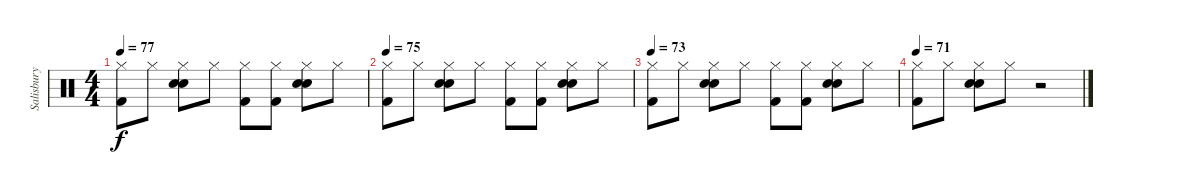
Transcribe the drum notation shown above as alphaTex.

\track ("Salisbury" "Salisbury") {instrument percussion}
\staff {score}
\articulation defaults
\ts (4 4)
\tempo 77
\clef neutral
\ks c
("Hi-Hat (closed)" "Kick (hit) 2").8{dy f} "Hi-Hat (closed)".8 ("Hi-Hat (closed)" "Electric Snare (hit)" "Hand Clap (hit)").8 "Hi-Hat (closed)".8 ("Hi-Hat (closed)" "Kick (hit) 2").8 ("Hi-Hat (closed)" "Kick (hit) 2").8 ("Hi-Hat (closed)" "Electric Snare (hit)" "Hand Clap (hit)").8 "Hi-Hat (closed)".8 |
\tempo 75
("Hi-Hat (closed)" "Kick (hit) 2").8 "Hi-Hat (closed)".8 ("Hi-Hat (closed)" "Electric Snare (hit)" "Hand Clap (hit)").8 "Hi-Hat (closed)".8 ("Hi-Hat (closed)" "Kick (hit) 2").8 ("Hi-Hat (closed)" "Kick (hit) 2").8 ("Hi-Hat (closed)" "Electric Snare (hit)" "Hand Clap (hit)").8 "Hi-Hat (closed)".8 |
\tempo 73
("Hi-Hat (closed)" "Kick (hit) 2").8 "Hi-Hat (closed)".8 ("Hi-Hat (closed)" "Electric Snare (hit)" "Hand Clap (hit)").8 "Hi-Hat (closed)".8 ("Hi-Hat (closed)" "Kick (hit) 2").8 ("Hi-Hat (closed)" "Kick (hit) 2").8 ("Hi-Hat (closed)" "Electric Snare (hit)" "Hand Clap (hit)").8 "Hi-Hat (closed)".8 |
\tempo 71
("Hi-Hat (closed)" "Kick (hit) 2").8 "Hi-Hat (closed)".8 ("Hi-Hat (closed)" "Electric Snare (hit)" "Hand Clap (hit)").8 "Hi-Hat (closed)".8 r.2
